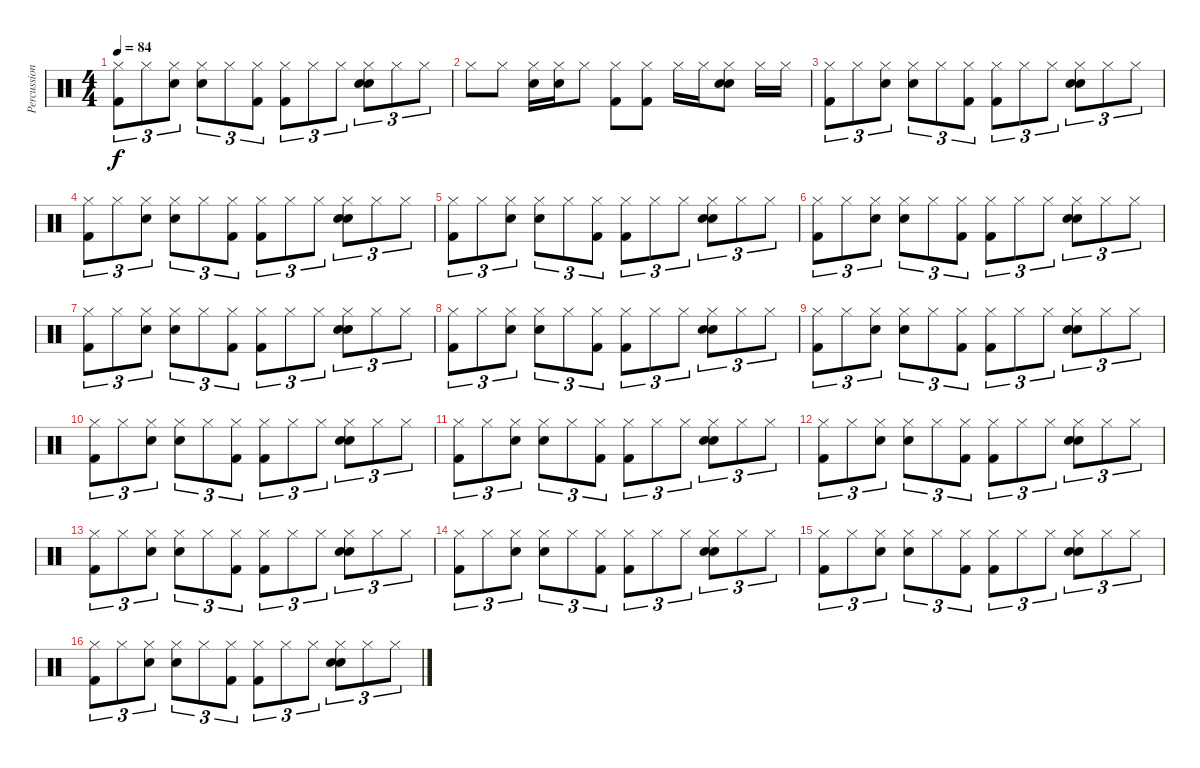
\track ("Percussion" "Percussion") {instrument percussion}
\staff {score}
\articulation defaults
\ts (4 4)
\tempo 84
\clef neutral
\ks c
("Hi-Hat (closed)" "Kick (hit) 2").8{tu (3 2) dy f} "Hi-Hat (closed)".8{tu (3 2)} ("Hi-Hat (closed)" "Electric Snare (hit)").8{tu (3 2)} ("Hi-Hat (closed)" "Hand Clap (hit)").8{tu (3 2)} "Hi-Hat (closed)".8{tu (3 2)} ("Hi-Hat (closed)" "Kick (hit) 2").8{tu (3 2)} ("Hi-Hat (closed)" "Kick (hit) 2").8{tu (3 2)} "Hi-Hat (closed)".8{tu (3 2)} "Hi-Hat (closed)".8{tu (3 2)} ("Hi-Hat (closed)" "Electric Snare (hit)" "Hand Clap (hit)").8{tu (3 2)} "Hi-Hat (closed)".8{tu (3 2)} "Hi-Hat (closed)".8{tu (3 2)} |
"Hi-Hat (closed)".8 "Hi-Hat (closed)".8 ("Hi-Hat (closed)" "Electric Snare (hit)").16 ("Hi-Hat (closed)" "Hand Clap (hit)").16 "Hi-Hat (closed)".8 ("Hi-Hat (closed)" "Kick (hit) 2").8 ("Hi-Hat (closed)" "Kick (hit) 2").8 "Hi-Hat (closed)".16 "Hi-Hat (closed)".16 ("Hi-Hat (closed)" "Electric Snare (hit)" "Hand Clap (hit)").8 "Hi-Hat (closed)".16 "Hi-Hat (closed)".16 |
("Hi-Hat (closed)" "Kick (hit) 2").8{tu (3 2)} "Hi-Hat (closed)".8{tu (3 2)} ("Hi-Hat (closed)" "Electric Snare (hit)").8{tu (3 2)} ("Hi-Hat (closed)" "Hand Clap (hit)").8{tu (3 2)} "Hi-Hat (closed)".8{tu (3 2)} ("Hi-Hat (closed)" "Kick (hit) 2").8{tu (3 2)} ("Hi-Hat (closed)" "Kick (hit) 2").8{tu (3 2)} "Hi-Hat (closed)".8{tu (3 2)} "Hi-Hat (closed)".8{tu (3 2)} ("Hi-Hat (closed)" "Electric Snare (hit)" "Hand Clap (hit)").8{tu (3 2)} "Hi-Hat (closed)".8{tu (3 2)} "Hi-Hat (closed)".8{tu (3 2)} |
("Hi-Hat (closed)" "Kick (hit) 2").8{tu (3 2)} "Hi-Hat (closed)".8{tu (3 2)} ("Hi-Hat (closed)" "Electric Snare (hit)").8{tu (3 2)} ("Hi-Hat (closed)" "Hand Clap (hit)").8{tu (3 2)} "Hi-Hat (closed)".8{tu (3 2)} ("Hi-Hat (closed)" "Kick (hit) 2").8{tu (3 2)} ("Hi-Hat (closed)" "Kick (hit) 2").8{tu (3 2)} "Hi-Hat (closed)".8{tu (3 2)} "Hi-Hat (closed)".8{tu (3 2)} ("Hi-Hat (closed)" "Electric Snare (hit)" "Hand Clap (hit)").8{tu (3 2)} "Hi-Hat (closed)".8{tu (3 2)} "Hi-Hat (closed)".8{tu (3 2)} |
("Hi-Hat (closed)" "Kick (hit) 2").8{tu (3 2)} "Hi-Hat (closed)".8{tu (3 2)} ("Hi-Hat (closed)" "Electric Snare (hit)").8{tu (3 2)} ("Hi-Hat (closed)" "Hand Clap (hit)").8{tu (3 2)} "Hi-Hat (closed)".8{tu (3 2)} ("Hi-Hat (closed)" "Kick (hit) 2").8{tu (3 2)} ("Hi-Hat (closed)" "Kick (hit) 2").8{tu (3 2)} "Hi-Hat (closed)".8{tu (3 2)} "Hi-Hat (closed)".8{tu (3 2)} ("Hi-Hat (closed)" "Electric Snare (hit)" "Hand Clap (hit)").8{tu (3 2)} "Hi-Hat (closed)".8{tu (3 2)} "Hi-Hat (closed)".8{tu (3 2)} |
("Hi-Hat (closed)" "Kick (hit) 2").8{tu (3 2)} "Hi-Hat (closed)".8{tu (3 2)} ("Hi-Hat (closed)" "Electric Snare (hit)").8{tu (3 2)} ("Hi-Hat (closed)" "Hand Clap (hit)").8{tu (3 2)} "Hi-Hat (closed)".8{tu (3 2)} ("Hi-Hat (closed)" "Kick (hit) 2").8{tu (3 2)} ("Hi-Hat (closed)" "Kick (hit) 2").8{tu (3 2)} "Hi-Hat (closed)".8{tu (3 2)} "Hi-Hat (closed)".8{tu (3 2)} ("Hi-Hat (closed)" "Electric Snare (hit)" "Hand Clap (hit)").8{tu (3 2)} "Hi-Hat (closed)".8{tu (3 2)} "Hi-Hat (closed)".8{tu (3 2)} |
("Hi-Hat (closed)" "Kick (hit) 2").8{tu (3 2)} "Hi-Hat (closed)".8{tu (3 2)} ("Hi-Hat (closed)" "Electric Snare (hit)").8{tu (3 2)} ("Hi-Hat (closed)" "Hand Clap (hit)").8{tu (3 2)} "Hi-Hat (closed)".8{tu (3 2)} ("Hi-Hat (closed)" "Kick (hit) 2").8{tu (3 2)} ("Hi-Hat (closed)" "Kick (hit) 2").8{tu (3 2)} "Hi-Hat (closed)".8{tu (3 2)} "Hi-Hat (closed)".8{tu (3 2)} ("Hi-Hat (closed)" "Electric Snare (hit)" "Hand Clap (hit)").8{tu (3 2)} "Hi-Hat (closed)".8{tu (3 2)} "Hi-Hat (closed)".8{tu (3 2)} |
("Hi-Hat (closed)" "Kick (hit) 2").8{tu (3 2)} "Hi-Hat (closed)".8{tu (3 2)} ("Hi-Hat (closed)" "Electric Snare (hit)").8{tu (3 2)} ("Hi-Hat (closed)" "Hand Clap (hit)").8{tu (3 2)} "Hi-Hat (closed)".8{tu (3 2)} ("Hi-Hat (closed)" "Kick (hit) 2").8{tu (3 2)} ("Hi-Hat (closed)" "Kick (hit) 2").8{tu (3 2)} "Hi-Hat (closed)".8{tu (3 2)} "Hi-Hat (closed)".8{tu (3 2)} ("Hi-Hat (closed)" "Electric Snare (hit)" "Hand Clap (hit)").8{tu (3 2)} "Hi-Hat (closed)".8{tu (3 2)} "Hi-Hat (closed)".8{tu (3 2)} |
("Hi-Hat (closed)" "Kick (hit) 2").8{tu (3 2)} "Hi-Hat (closed)".8{tu (3 2)} ("Hi-Hat (closed)" "Electric Snare (hit)").8{tu (3 2)} ("Hi-Hat (closed)" "Hand Clap (hit)").8{tu (3 2)} "Hi-Hat (closed)".8{tu (3 2)} ("Hi-Hat (closed)" "Kick (hit) 2").8{tu (3 2)} ("Hi-Hat (closed)" "Kick (hit) 2").8{tu (3 2)} "Hi-Hat (closed)".8{tu (3 2)} "Hi-Hat (closed)".8{tu (3 2)} ("Hi-Hat (closed)" "Electric Snare (hit)" "Hand Clap (hit)").8{tu (3 2)} "Hi-Hat (closed)".8{tu (3 2)} "Hi-Hat (closed)".8{tu (3 2)} |
("Hi-Hat (closed)" "Kick (hit) 2").8{tu (3 2)} "Hi-Hat (closed)".8{tu (3 2)} ("Hi-Hat (closed)" "Electric Snare (hit)").8{tu (3 2)} ("Hi-Hat (closed)" "Hand Clap (hit)").8{tu (3 2)} "Hi-Hat (closed)".8{tu (3 2)} ("Hi-Hat (closed)" "Kick (hit) 2").8{tu (3 2)} ("Hi-Hat (closed)" "Kick (hit) 2").8{tu (3 2)} "Hi-Hat (closed)".8{tu (3 2)} "Hi-Hat (closed)".8{tu (3 2)} ("Hi-Hat (closed)" "Electric Snare (hit)" "Hand Clap (hit)").8{tu (3 2)} "Hi-Hat (closed)".8{tu (3 2)} "Hi-Hat (closed)".8{tu (3 2)} |
("Hi-Hat (closed)" "Kick (hit) 2").8{tu (3 2)} "Hi-Hat (closed)".8{tu (3 2)} ("Hi-Hat (closed)" "Electric Snare (hit)").8{tu (3 2)} ("Hi-Hat (closed)" "Hand Clap (hit)").8{tu (3 2)} "Hi-Hat (closed)".8{tu (3 2)} ("Hi-Hat (closed)" "Kick (hit) 2").8{tu (3 2)} ("Hi-Hat (closed)" "Kick (hit) 2").8{tu (3 2)} "Hi-Hat (closed)".8{tu (3 2)} "Hi-Hat (closed)".8{tu (3 2)} ("Hi-Hat (closed)" "Electric Snare (hit)" "Hand Clap (hit)").8{tu (3 2)} "Hi-Hat (closed)".8{tu (3 2)} "Hi-Hat (closed)".8{tu (3 2)} |
("Hi-Hat (closed)" "Kick (hit) 2").8{tu (3 2)} "Hi-Hat (closed)".8{tu (3 2)} ("Hi-Hat (closed)" "Electric Snare (hit)").8{tu (3 2)} ("Hi-Hat (closed)" "Hand Clap (hit)").8{tu (3 2)} "Hi-Hat (closed)".8{tu (3 2)} ("Hi-Hat (closed)" "Kick (hit) 2").8{tu (3 2)} ("Hi-Hat (closed)" "Kick (hit) 2").8{tu (3 2)} "Hi-Hat (closed)".8{tu (3 2)} "Hi-Hat (closed)".8{tu (3 2)} ("Hi-Hat (closed)" "Electric Snare (hit)" "Hand Clap (hit)").8{tu (3 2)} "Hi-Hat (closed)".8{tu (3 2)} "Hi-Hat (closed)".8{tu (3 2)} |
("Hi-Hat (closed)" "Kick (hit) 2").8{tu (3 2)} "Hi-Hat (closed)".8{tu (3 2)} ("Hi-Hat (closed)" "Electric Snare (hit)").8{tu (3 2)} ("Hi-Hat (closed)" "Hand Clap (hit)").8{tu (3 2)} "Hi-Hat (closed)".8{tu (3 2)} ("Hi-Hat (closed)" "Kick (hit) 2").8{tu (3 2)} ("Hi-Hat (closed)" "Kick (hit) 2").8{tu (3 2)} "Hi-Hat (closed)".8{tu (3 2)} "Hi-Hat (closed)".8{tu (3 2)} ("Hi-Hat (closed)" "Electric Snare (hit)" "Hand Clap (hit)").8{tu (3 2)} "Hi-Hat (closed)".8{tu (3 2)} "Hi-Hat (closed)".8{tu (3 2)} |
("Hi-Hat (closed)" "Kick (hit) 2").8{tu (3 2)} "Hi-Hat (closed)".8{tu (3 2)} ("Hi-Hat (closed)" "Electric Snare (hit)").8{tu (3 2)} ("Hi-Hat (closed)" "Hand Clap (hit)").8{tu (3 2)} "Hi-Hat (closed)".8{tu (3 2)} ("Hi-Hat (closed)" "Kick (hit) 2").8{tu (3 2)} ("Hi-Hat (closed)" "Kick (hit) 2").8{tu (3 2)} "Hi-Hat (closed)".8{tu (3 2)} "Hi-Hat (closed)".8{tu (3 2)} ("Hi-Hat (closed)" "Electric Snare (hit)" "Hand Clap (hit)").8{tu (3 2)} "Hi-Hat (closed)".8{tu (3 2)} "Hi-Hat (closed)".8{tu (3 2)} |
("Hi-Hat (closed)" "Kick (hit) 2").8{tu (3 2)} "Hi-Hat (closed)".8{tu (3 2)} ("Hi-Hat (closed)" "Electric Snare (hit)").8{tu (3 2)} ("Hi-Hat (closed)" "Hand Clap (hit)").8{tu (3 2)} "Hi-Hat (closed)".8{tu (3 2)} ("Hi-Hat (closed)" "Kick (hit) 2").8{tu (3 2)} ("Hi-Hat (closed)" "Kick (hit) 2").8{tu (3 2)} "Hi-Hat (closed)".8{tu (3 2)} "Hi-Hat (closed)".8{tu (3 2)} ("Hi-Hat (closed)" "Electric Snare (hit)" "Hand Clap (hit)").8{tu (3 2)} "Hi-Hat (closed)".8{tu (3 2)} "Hi-Hat (closed)".8{tu (3 2)} |
("Hi-Hat (closed)" "Kick (hit) 2").8{tu (3 2)} "Hi-Hat (closed)".8{tu (3 2)} ("Hi-Hat (closed)" "Electric Snare (hit)").8{tu (3 2)} ("Hi-Hat (closed)" "Hand Clap (hit)").8{tu (3 2)} "Hi-Hat (closed)".8{tu (3 2)} ("Hi-Hat (closed)" "Kick (hit) 2").8{tu (3 2)} ("Hi-Hat (closed)" "Kick (hit) 2").8{tu (3 2)} "Hi-Hat (closed)".8{tu (3 2)} "Hi-Hat (closed)".8{tu (3 2)} ("Hi-Hat (closed)" "Electric Snare (hit)" "Hand Clap (hit)").8{tu (3 2)} "Hi-Hat (closed)".8{tu (3 2)} "Hi-Hat (closed)".8{tu (3 2)}
